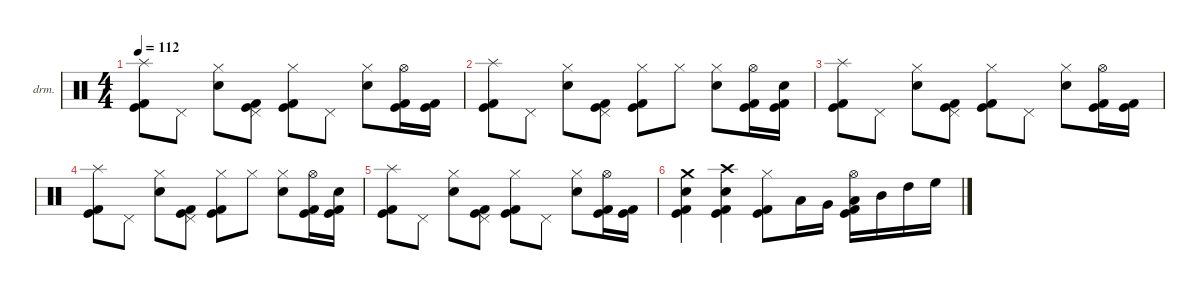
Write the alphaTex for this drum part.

\defaultSystemsLayout 4
\hideDynamics
\bracketExtendMode nobrackets
\firstSystemTrackNameOrientation horizontal
\otherSystemsTrackNameOrientation horizontal
\track ("Drums" "drm.") {instrument percussion}
\staff {score}
\articulation defaults
\ts (4 4)
\tempo 112
\clef neutral
\ks c
("Splash (hit)" "Kick (hit) 2" "Kick (hit)").8{dy f} "Pedal Hi-Hat (hit)".8{dy ff} ("Hi-Hat (closed)" "Snare (hit) 2").8{dy f} ("Pedal Hi-Hat (hit)" "Kick (hit)" "Kick (hit) 2").8{dy ff} ("Hi-Hat (closed)" "Kick (hit)" "Kick (hit) 2").8{dy f} "Pedal Hi-Hat (hit)".8{dy ff} ("Hi-Hat (closed)" "Snare (hit) 2").8{dy f} ("Hi-Hat (open)" "Kick (hit) 2" "Kick (hit)").16 ("Kick (hit) 2" "Kick (hit)").16 |
("Splash (hit)" "Kick (hit) 2" "Kick (hit)").8 "Pedal Hi-Hat (hit)".8{dy ff} ("Hi-Hat (closed)" "Snare (hit) 2").8{dy f} ("Pedal Hi-Hat (hit)" "Kick (hit)" "Kick (hit) 2").8{dy ff} ("Hi-Hat (closed)" "Kick (hit)" "Kick (hit) 2").8{dy f} "Hi-Hat (closed)".8{dy ff} ("Hi-Hat (closed)" "Snare (hit) 2").8{dy f} ("Hi-Hat (open)" "Kick (hit) 2" "Kick (hit)").16 ("Snare (hit) 2" "Kick (hit) 2" "Kick (hit)").16 |
("Splash (hit)" "Kick (hit) 2" "Kick (hit)").8 "Pedal Hi-Hat (hit)".8{dy ff} ("Hi-Hat (closed)" "Snare (hit) 2").8{dy f} ("Pedal Hi-Hat (hit)" "Kick (hit)" "Kick (hit) 2").8{dy ff} ("Hi-Hat (closed)" "Kick (hit)" "Kick (hit) 2").8{dy f} "Pedal Hi-Hat (hit)".8{dy ff} ("Hi-Hat (closed)" "Snare (hit) 2").8{dy f} ("Hi-Hat (open)" "Kick (hit) 2" "Kick (hit)").16 ("Kick (hit) 2" "Kick (hit)").16 |
("Splash (hit)" "Kick (hit) 2" "Kick (hit)").8 "Pedal Hi-Hat (hit)".8{dy ff} ("Hi-Hat (closed)" "Snare (hit) 2").8{dy f} ("Pedal Hi-Hat (hit)" "Kick (hit)" "Kick (hit) 2").8{dy ff} ("Hi-Hat (closed)" "Kick (hit)" "Kick (hit) 2").8{dy f} "Hi-Hat (closed)".8{dy ff} ("Hi-Hat (closed)" "Snare (hit) 2").8{dy f} ("Hi-Hat (open)" "Kick (hit) 2" "Kick (hit)").16 ("Snare (hit) 2" "Kick (hit) 2" "Kick (hit)").16 |
("Splash (hit)" "Kick (hit) 2" "Kick (hit)").8 "Pedal Hi-Hat (hit)".8{dy ff} ("Hi-Hat (closed)" "Snare (hit) 2").8{dy f} ("Pedal Hi-Hat (hit)" "Kick (hit)" "Kick (hit) 2").8{dy ff} ("Hi-Hat (closed)" "Kick (hit)" "Kick (hit) 2").8{dy f} "Pedal Hi-Hat (hit)".8{dy ff} ("Hi-Hat (closed)" "Snare (hit) 2").8{dy f} ("Hi-Hat (open)" "Kick (hit) 2" "Kick (hit)").16 ("Kick (hit) 2" "Kick (hit)").16 |
("Crash medium (hit)" "Snare (hit) 2" "Kick (hit) 2" "Kick (hit)").4 ("Crash high (hit)" "Snare (hit) 2" "Kick (hit) 2" "Kick (hit)").4 ("Hi-Hat (closed)" "Kick (hit) 2" "Kick (hit)").8 "Low Tom (hit)".16 "Very Low Tom (hit)".16 ("Hi-Hat (open)" "Low Floor Tom (hit)" "Kick (hit) 2" "Kick (hit)").16 "Mid Tom (hit)".16 "High Tom (hit)".16 "High Floor Tom (hit)".16
